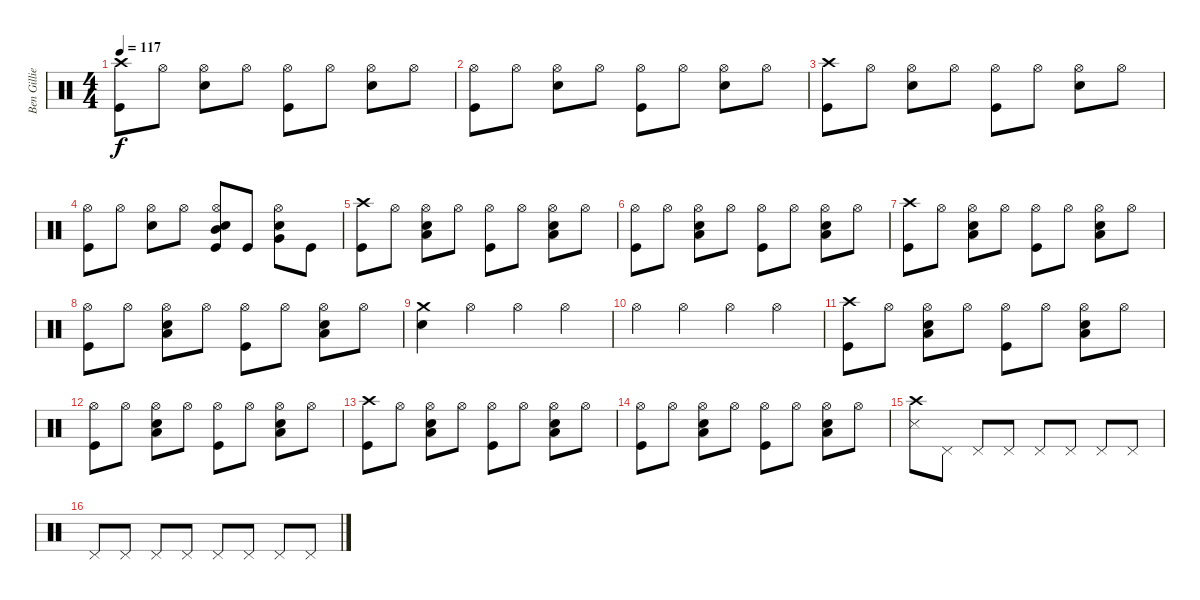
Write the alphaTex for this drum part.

\track ("Ben Gillies" "Ben Gillie") {instrument percussion}
\staff {score}
\articulation defaults
\ts (4 4)
\tempo 117
\clef neutral
\ks c
("Crash high (hit)" "Kick (hit)").8{dy f} "Hi-Hat (open)".8 ("Snare (hit) 2" "Hi-Hat (open)").8 "Hi-Hat (open)".8 ("Hi-Hat (open)" "Kick (hit)").8 "Hi-Hat (open)".8 ("Snare (hit) 2" "Hi-Hat (open)").8 "Hi-Hat (open)".8 |
("Hi-Hat (open)" "Kick (hit)").8 "Hi-Hat (open)".8 ("Snare (hit) 2" "Hi-Hat (open)").8 "Hi-Hat (open)".8 ("Hi-Hat (open)" "Kick (hit)").8 "Hi-Hat (open)".8 ("Snare (hit) 2" "Hi-Hat (open)").8 "Hi-Hat (open)".8 |
("Crash high (hit)" "Kick (hit)").8 "Hi-Hat (open)".8 ("Snare (hit) 2" "Hi-Hat (open)").8 "Hi-Hat (open)".8 ("Hi-Hat (open)" "Kick (hit)").8 "Hi-Hat (open)".8 ("Snare (hit) 2" "Hi-Hat (open)").8 "Hi-Hat (open)".8 |
("Hi-Hat (open)" "Kick (hit)").8 "Hi-Hat (open)".8 ("Snare (hit) 2" "Hi-Hat (open)").8 "Hi-Hat (open)".8 ("Mid Tom (hit)" "Snare (hit) 2" "Hi-Hat (open)" "Kick (hit)").8 "Kick (hit)".8 ("Very Low Tom (hit)" "Snare (hit) 2" "Hi-Hat (open)").8 "Kick (hit)".8 |
("Crash high (hit)" "Kick (hit)").8 "Hi-Hat (open)".8 ("Snare (hit) 2" "Hi-Hat (open)" "Low Tom (hit)").8 "Hi-Hat (open)".8 ("Hi-Hat (open)" "Kick (hit)").8 "Hi-Hat (open)".8 ("Snare (hit) 2" "Hi-Hat (open)" "Low Tom (hit)").8 "Hi-Hat (open)".8 |
("Hi-Hat (open)" "Kick (hit)").8 "Hi-Hat (open)".8 ("Snare (hit) 2" "Hi-Hat (open)" "Low Tom (hit)").8 "Hi-Hat (open)".8 ("Hi-Hat (open)" "Kick (hit)").8 "Hi-Hat (open)".8 ("Snare (hit) 2" "Hi-Hat (open)" "Low Tom (hit)").8 "Hi-Hat (open)".8 |
("Crash high (hit)" "Kick (hit)").8 "Hi-Hat (open)".8 ("Snare (hit) 2" "Hi-Hat (open)" "Low Tom (hit)").8 "Hi-Hat (open)".8 ("Hi-Hat (open)" "Kick (hit)").8 "Hi-Hat (open)".8 ("Snare (hit) 2" "Hi-Hat (open)" "Low Tom (hit)").8 "Hi-Hat (open)".8 |
("Hi-Hat (open)" "Kick (hit)").8 "Hi-Hat (open)".8 ("Snare (hit) 2" "Hi-Hat (open)" "Low Tom (hit)").8 "Hi-Hat (open)".8 ("Hi-Hat (open)" "Kick (hit)").8 "Hi-Hat (open)".8 ("Snare (hit) 2" "Hi-Hat (open)" "Low Tom (hit)").8 "Hi-Hat (open)".8 |
("Crash medium (hit)" "Snare (hit) 2").4 "Hi-Hat (open)".4 "Hi-Hat (open)".4 "Hi-Hat (open)".4 |
"Hi-Hat (open)".4 "Hi-Hat (open)".4 "Hi-Hat (open)".4 "Hi-Hat (open)".4 |
("Crash high (hit)" "Kick (hit)").8 "Hi-Hat (open)".8 ("Snare (hit) 2" "Hi-Hat (open)" "Low Tom (hit)").8 "Hi-Hat (open)".8 ("Hi-Hat (open)" "Kick (hit)").8 "Hi-Hat (open)".8 ("Snare (hit) 2" "Hi-Hat (open)" "Low Tom (hit)").8 "Hi-Hat (open)".8 |
("Hi-Hat (open)" "Kick (hit)").8 "Hi-Hat (open)".8 ("Snare (hit) 2" "Hi-Hat (open)" "Low Tom (hit)").8 "Hi-Hat (open)".8 ("Hi-Hat (open)" "Kick (hit)").8 "Hi-Hat (open)".8 ("Snare (hit) 2" "Hi-Hat (open)" "Low Tom (hit)").8 "Hi-Hat (open)".8 |
("Crash high (hit)" "Kick (hit)").8 "Hi-Hat (open)".8 ("Snare (hit) 2" "Hi-Hat (open)" "Low Tom (hit)").8 "Hi-Hat (open)".8 ("Hi-Hat (open)" "Kick (hit)").8 "Hi-Hat (open)".8 ("Snare (hit) 2" "Hi-Hat (open)" "Low Tom (hit)").8 "Hi-Hat (open)".8 |
("Hi-Hat (open)" "Kick (hit)").8 "Hi-Hat (open)".8 ("Snare (hit) 2" "Hi-Hat (open)" "Low Tom (hit)").8 "Hi-Hat (open)".8 ("Hi-Hat (open)" "Kick (hit)").8 "Hi-Hat (open)".8 ("Snare (hit) 2" "Hi-Hat (open)" "Low Tom (hit)").8 "Hi-Hat (open)".8 |
("Crash high (hit)" "Snare (side stick) 3").8 "Pedal Hi-Hat (hit)".8 "Pedal Hi-Hat (hit)".8 "Pedal Hi-Hat (hit)".8 "Pedal Hi-Hat (hit)".8 "Pedal Hi-Hat (hit)".8 "Pedal Hi-Hat (hit)".8 "Pedal Hi-Hat (hit)".8 |
"Pedal Hi-Hat (hit)".8 "Pedal Hi-Hat (hit)".8 "Pedal Hi-Hat (hit)".8 "Pedal Hi-Hat (hit)".8 "Pedal Hi-Hat (hit)".8 "Pedal Hi-Hat (hit)".8 "Pedal Hi-Hat (hit)".8 "Pedal Hi-Hat (hit)".8
